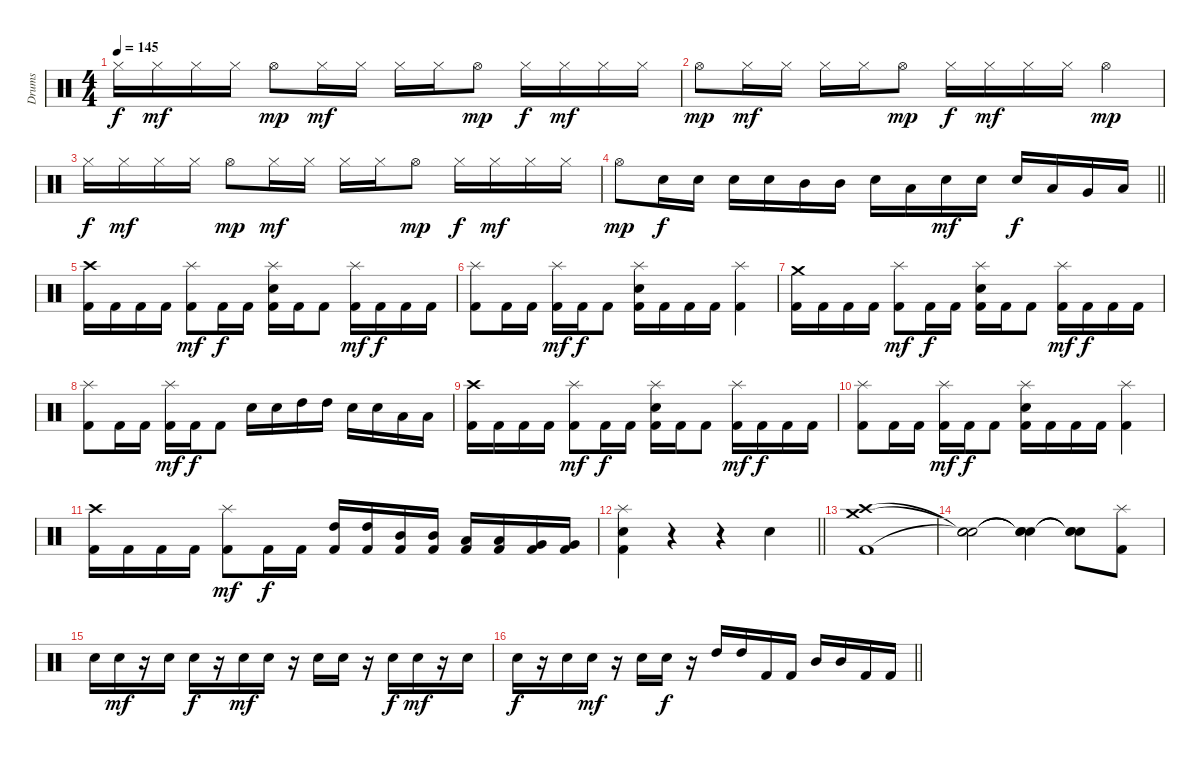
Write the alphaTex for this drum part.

\track ("Drums" "Drums") {instrument percussion}
\staff {score}
\articulation defaults
\ts (4 4)
\tempo 145
\clef neutral
\ks c "Hi-Hat (closed)".16{dy f} "Hi-Hat (closed)".16{dy mf} "Hi-Hat (closed)".16 "Hi-Hat (closed)".16 "Hi-Hat (open)".8{dy mp} "Hi-Hat (closed)".16{dy mf} "Hi-Hat (closed)".16 "Hi-Hat (closed)".16 "Hi-Hat (closed)".16 "Hi-Hat (open)".8{dy mp} "Hi-Hat (closed)".16{dy f} "Hi-Hat (closed)".16{dy mf} "Hi-Hat (closed)".16 "Hi-Hat (closed)".16
|
"Hi-Hat (open)".8{dy mp} "Hi-Hat (closed)".16{dy mf} "Hi-Hat (closed)".16 "Hi-Hat (closed)".16 "Hi-Hat (closed)".16 "Hi-Hat (open)".8{dy mp} "Hi-Hat (closed)".16{dy f} "Hi-Hat (closed)".16{dy mf} "Hi-Hat (closed)".16 "Hi-Hat (closed)".16 "Hi-Hat (open)".4{dy mp} |
"Hi-Hat (closed)".16{dy f} "Hi-Hat (closed)".16{dy mf} "Hi-Hat (closed)".16 "Hi-Hat (closed)".16 "Hi-Hat (open)".8{dy mp} "Hi-Hat (closed)".16{dy mf} "Hi-Hat (closed)".16 "Hi-Hat (closed)".16 "Hi-Hat (closed)".16 "Hi-Hat (open)".8{dy mp} "Hi-Hat (closed)".16{dy f} "Hi-Hat (closed)".16{dy mf} "Hi-Hat (closed)".16 "Hi-Hat (closed)".16 |
\barLineRight lightlight "Hi-Hat (open)".8{dy mp} "Electric Snare (hit)".16{dy f} "Electric Snare (hit)".16 "Electric Snare (hit)".16 "Electric Snare (hit)".16 "Mid Tom (hit)".16 "Mid Tom (hit)".16 "Electric Snare (hit)".16 "Low Tom (hit)".16 "Electric Snare (hit)".16{dy mf} "Electric Snare (hit)".16 "Electric Snare (hit)".16{dy f} "Low Tom (hit)".16 "Very Low Tom (hit)".16 "Low Floor Tom (hit)".16
|
("Crash high (hit)" "Kick (hit) 2").16 "Kick (hit) 2".16 "Kick (hit) 2".16 "Kick (hit) 2".16 ("Splash (hit)" "Kick (hit) 2").8{dy mf} "Kick (hit) 2".16{dy f} "Kick (hit) 2".16 ("Splash (hit)" "Electric Snare (hit)" "Kick (hit) 2").16 "Kick (hit) 2".16 "Kick (hit) 2".8 ("Splash (hit)" "Kick (hit) 2").16{dy mf} "Kick (hit) 2".16{dy f} "Kick (hit) 2".16 "Kick (hit) 2".16 |
("Splash (hit)" "Kick (hit) 2").8 "Kick (hit) 2".16 "Kick (hit) 2".16 ("Splash (hit)" "Kick (hit) 2").16{dy mf} "Kick (hit) 2".16{dy f} "Kick (hit) 2".8 ("Splash (hit)" "Electric Snare (hit)" "Kick (hit) 2").16 "Kick (hit) 2".16 "Kick (hit) 2".16 "Kick (hit) 2".16 ("Splash (hit)" "Kick (hit) 2").4 |
("Crash medium (hit)" "Kick (hit) 2").16 "Kick (hit) 2".16 "Kick (hit) 2".16 "Kick (hit) 2".16 ("Splash (hit)" "Kick (hit) 2").8{dy mf} "Kick (hit) 2".16{dy f} "Kick (hit) 2".16 ("Splash (hit)" "Electric Snare (hit)" "Kick (hit) 2").16 "Kick (hit) 2".16 "Kick (hit) 2".8 ("Splash (hit)" "Kick (hit) 2").16{dy mf} "Kick (hit) 2".16{dy f} "Kick (hit) 2".16 "Kick (hit) 2".16 |
("Splash (hit)" "Kick (hit) 2").8 "Kick (hit) 2".16 "Kick (hit) 2".16 ("Splash (hit)" "Kick (hit) 2").16{dy mf} "Kick (hit) 2".16{dy f} "Kick (hit) 2".8 "Electric Snare (hit)".16 "Electric Snare (hit)".16 "High Tom (hit)".16 "High Tom (hit)".16 "Electric Snare (hit)".16 "Electric Snare (hit)".16 "Low Tom (hit)".16 "Low Tom (hit)".16 |
("Crash high (hit)" "Kick (hit) 2").16 "Kick (hit) 2".16 "Kick (hit) 2".16 "Kick (hit) 2".16 ("Splash (hit)" "Kick (hit) 2").8{dy mf} "Kick (hit) 2".16{dy f} "Kick (hit) 2".16 ("Splash (hit)" "Electric Snare (hit)" "Kick (hit) 2").16 "Kick (hit) 2".16 "Kick (hit) 2".8 ("Splash (hit)" "Kick (hit) 2").16{dy mf} "Kick (hit) 2".16{dy f} "Kick (hit) 2".16 "Kick (hit) 2".16 |
("Splash (hit)" "Kick (hit) 2").8 "Kick (hit) 2".16 "Kick (hit) 2".16 ("Splash (hit)" "Kick (hit) 2").16{dy mf} "Kick (hit) 2".16{dy f} "Kick (hit) 2".8 ("Splash (hit)" "Electric Snare (hit)" "Kick (hit) 2").16 "Kick (hit) 2".16 "Kick (hit) 2".16 "Kick (hit) 2".16 ("Splash (hit)" "Kick (hit) 2").4 |
("Crash high (hit)" "Kick (hit) 2").16 "Kick (hit) 2".16 "Kick (hit) 2".16 "Kick (hit) 2".16 ("Splash (hit)" "Kick (hit) 2").8{dy mf} "Kick (hit) 2".16{dy f} "Kick (hit) 2".16 ("High Tom (hit)" "Kick (hit) 2").16 ("High Tom (hit)" "Kick (hit) 2").16 ("Mid Tom (hit)" "Kick (hit) 2").16 ("Mid Tom (hit)" "Kick (hit) 2").16 ("Low Tom (hit)" "Kick (hit) 2").16 ("Low Tom (hit)" "Kick (hit) 2").16 ("Very Low Tom (hit)" "Kick (hit) 2").16 ("Very Low Tom (hit)" "Kick (hit) 2").16 |
\barLineRight lightlight
("Splash (hit)" "Electric Snare (hit)" "Kick (hit) 2").4 r.4 r.4 "Electric Snare (hit)".4 |
("Crash high (hit)" "Crash medium (hit)" "Kick (hit) 2").1 |
("Snare (hit)"{t} "Snare (hit)"{t} "Snare (hit)"{t}).2 ("Snare (hit)"{t} "Snare (hit)"{t} "Snare (hit)"{t}).4 ("Snare (hit)"{t} "Snare (hit)"{t} "Snare (hit)"{t}).8 ("Splash (hit)" "Kick (hit) 2").8 |
"Electric Snare (hit)".16 "Electric Snare (hit)".16{dy mf} r.16 "Electric Snare (hit)".16 "Electric Snare (hit)".16{dy f} r.16 "Electric Snare (hit)".16{dy mf} "Electric Snare (hit)".16 r.16 "Electric Snare (hit)".16 "Electric Snare (hit)".16 r.16 "Electric Snare (hit)".16{dy f} "Electric Snare (hit)".16{dy mf} r.16 "Electric Snare (hit)".16 |
\barLineRight lightlight "Electric Snare (hit)".16{dy f}
r.16 "Electric Snare (hit)".16 "Electric Snare (hit)".16{dy mf} r.16 "Electric Snare (hit)".16 "Electric Snare (hit)".16{dy f} r.16 "High Tom (hit)".16 "High Tom (hit)".16 "Kick (hit) 2".16 "Kick (hit) 2".16 "Mid Tom (hit)".16 "Mid Tom (hit)".16 "Kick (hit) 2".16 "Kick (hit) 2".16
